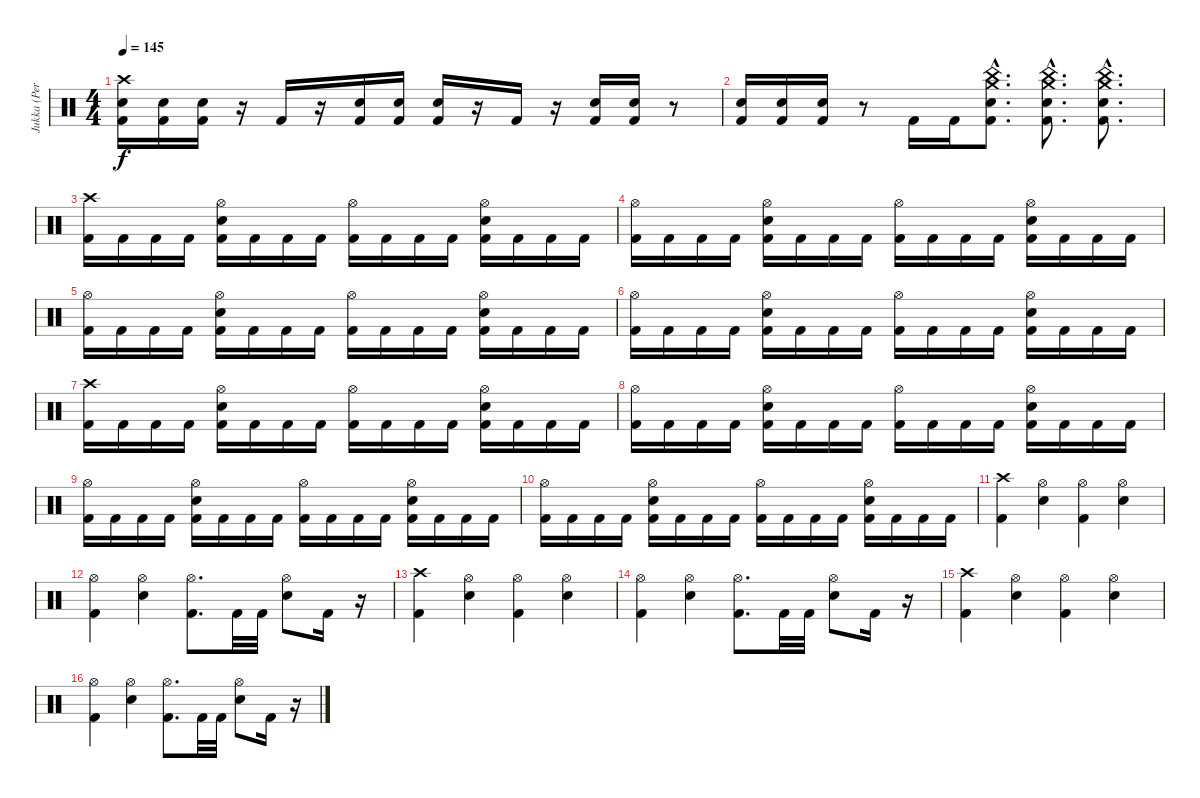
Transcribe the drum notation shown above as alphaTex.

\track ("Jukka (Percussion)" "Jukka (Per") {instrument percussion}
\staff {score}
\articulation defaults
\ts (4 4)
\tempo 145
\clef neutral
\ks c
("Kick (hit) 2" "Electric Snare (hit)" "Crash high (hit)").16{dy f} ("Kick (hit) 2" "Electric Snare (hit)").16 ("Kick (hit) 2" "Electric Snare (hit)").16 r.16 "Kick (hit) 2".16 r.16 ("Kick (hit) 2" "Electric Snare (hit)").16 ("Kick (hit) 2" "Electric Snare (hit)").16 ("Kick (hit) 2" "Electric Snare (hit)").16 r.16 "Kick (hit) 2".16 r.16 ("Kick (hit) 2" "Electric Snare (hit)").16 ("Kick (hit) 2" "Electric Snare (hit)").16 r.8 |
("Kick (hit) 2" "Electric Snare (hit)").16 ("Kick (hit) 2" "Electric Snare (hit)").16 ("Kick (hit) 2" "Electric Snare (hit)").16 r.8 "Kick (hit) 2".16 "Kick (hit) 2".16 ("Kick (hit) 2" "Electric Snare (hit)" "China (hit)"{hac} "Crash medium (hit)"{hac}).8{d} ("Kick (hit) 2" "Electric Snare (hit)" "China (hit)"{hac} "Crash medium (hit)"{hac}).8{d} ("Kick (hit) 2" "Electric Snare (hit)" "China (hit)"{hac} "Crash medium (hit)"{hac}).8{d} |
("Kick (hit) 2" "Crash high (hit)").16 "Kick (hit) 2".16 "Kick (hit) 2".16 "Kick (hit) 2".16 ("Kick (hit) 2" "Electric Snare (hit)" "Hi-Hat (open)").16 "Kick (hit) 2".16 "Kick (hit) 2".16 "Kick (hit) 2".16 ("Kick (hit) 2" "Hi-Hat (open)").16 "Kick (hit) 2".16 "Kick (hit) 2".16 "Kick (hit) 2".16 ("Kick (hit) 2" "Electric Snare (hit)" "Hi-Hat (open)").16 "Kick (hit) 2".16 "Kick (hit) 2".16 "Kick (hit) 2".16 |
("Kick (hit) 2" "Hi-Hat (open)").16 "Kick (hit) 2".16 "Kick (hit) 2".16 "Kick (hit) 2".16 ("Kick (hit) 2" "Electric Snare (hit)" "Hi-Hat (open)").16 "Kick (hit) 2".16 "Kick (hit) 2".16 "Kick (hit) 2".16 ("Kick (hit) 2" "Hi-Hat (open)").16 "Kick (hit) 2".16 "Kick (hit) 2".16 "Kick (hit) 2".16 ("Kick (hit) 2" "Electric Snare (hit)" "Hi-Hat (open)").16 "Kick (hit) 2".16 "Kick (hit) 2".16 "Kick (hit) 2".16 |
("Kick (hit) 2" "Hi-Hat (open)").16 "Kick (hit) 2".16 "Kick (hit) 2".16 "Kick (hit) 2".16 ("Kick (hit) 2" "Electric Snare (hit)" "Hi-Hat (open)").16 "Kick (hit) 2".16 "Kick (hit) 2".16 "Kick (hit) 2".16 ("Kick (hit) 2" "Hi-Hat (open)").16 "Kick (hit) 2".16 "Kick (hit) 2".16 "Kick (hit) 2".16 ("Kick (hit) 2" "Electric Snare (hit)" "Hi-Hat (open)").16 "Kick (hit) 2".16 "Kick (hit) 2".16 "Kick (hit) 2".16 |
("Kick (hit) 2" "Hi-Hat (open)").16 "Kick (hit) 2".16 "Kick (hit) 2".16 "Kick (hit) 2".16 ("Kick (hit) 2" "Electric Snare (hit)" "Hi-Hat (open)").16 "Kick (hit) 2".16 "Kick (hit) 2".16 "Kick (hit) 2".16 ("Kick (hit) 2" "Hi-Hat (open)").16 "Kick (hit) 2".16 "Kick (hit) 2".16 "Kick (hit) 2".16 ("Kick (hit) 2" "Electric Snare (hit)" "Hi-Hat (open)").16 "Kick (hit) 2".16 "Kick (hit) 2".16 "Kick (hit) 2".16 |
("Kick (hit) 2" "Crash high (hit)").16 "Kick (hit) 2".16 "Kick (hit) 2".16 "Kick (hit) 2".16 ("Kick (hit) 2" "Electric Snare (hit)" "Hi-Hat (open)").16 "Kick (hit) 2".16 "Kick (hit) 2".16 "Kick (hit) 2".16 ("Kick (hit) 2" "Hi-Hat (open)").16 "Kick (hit) 2".16 "Kick (hit) 2".16 "Kick (hit) 2".16 ("Kick (hit) 2" "Electric Snare (hit)" "Hi-Hat (open)").16 "Kick (hit) 2".16 "Kick (hit) 2".16 "Kick (hit) 2".16 |
("Kick (hit) 2" "Hi-Hat (open)").16 "Kick (hit) 2".16 "Kick (hit) 2".16 "Kick (hit) 2".16 ("Kick (hit) 2" "Electric Snare (hit)" "Hi-Hat (open)").16 "Kick (hit) 2".16 "Kick (hit) 2".16 "Kick (hit) 2".16 ("Kick (hit) 2" "Hi-Hat (open)").16 "Kick (hit) 2".16 "Kick (hit) 2".16 "Kick (hit) 2".16 ("Kick (hit) 2" "Electric Snare (hit)" "Hi-Hat (open)").16 "Kick (hit) 2".16 "Kick (hit) 2".16 "Kick (hit) 2".16 |
("Kick (hit) 2" "Hi-Hat (open)").16 "Kick (hit) 2".16 "Kick (hit) 2".16 "Kick (hit) 2".16 ("Kick (hit) 2" "Electric Snare (hit)" "Hi-Hat (open)").16 "Kick (hit) 2".16 "Kick (hit) 2".16 "Kick (hit) 2".16 ("Kick (hit) 2" "Hi-Hat (open)").16 "Kick (hit) 2".16 "Kick (hit) 2".16 "Kick (hit) 2".16 ("Kick (hit) 2" "Electric Snare (hit)" "Hi-Hat (open)").16 "Kick (hit) 2".16 "Kick (hit) 2".16 "Kick (hit) 2".16 |
("Kick (hit) 2" "Hi-Hat (open)").16 "Kick (hit) 2".16 "Kick (hit) 2".16 "Kick (hit) 2".16 ("Kick (hit) 2" "Electric Snare (hit)" "Hi-Hat (open)").16 "Kick (hit) 2".16 "Kick (hit) 2".16 "Kick (hit) 2".16 ("Kick (hit) 2" "Hi-Hat (open)").16 "Kick (hit) 2".16 "Kick (hit) 2".16 "Kick (hit) 2".16 ("Kick (hit) 2" "Electric Snare (hit)" "Hi-Hat (open)").16 "Kick (hit) 2".16 "Kick (hit) 2".16 "Kick (hit) 2".16 |
("Kick (hit) 2" "Crash high (hit)").4 ("Electric Snare (hit)" "Hi-Hat (open)").4 ("Kick (hit) 2" "Hi-Hat (open)").4 ("Electric Snare (hit)" "Hi-Hat (open)").4 |
("Kick (hit) 2" "Hi-Hat (open)").4 ("Electric Snare (hit)" "Hi-Hat (open)").4 ("Kick (hit) 2" "Hi-Hat (open)").8{d} "Kick (hit) 2".32 "Kick (hit) 2".32 ("Electric Snare (hit)" "Hi-Hat (open)").8 "Kick (hit) 2".16 r.16 |
("Kick (hit) 2" "Crash high (hit)").4 ("Electric Snare (hit)" "Hi-Hat (open)").4 ("Kick (hit) 2" "Hi-Hat (open)").4 ("Electric Snare (hit)" "Hi-Hat (open)").4 |
("Kick (hit) 2" "Hi-Hat (open)").4 ("Electric Snare (hit)" "Hi-Hat (open)").4 ("Kick (hit) 2" "Hi-Hat (open)").8{d} "Kick (hit) 2".32 "Kick (hit) 2".32 ("Electric Snare (hit)" "Hi-Hat (open)").8 "Kick (hit) 2".16 r.16 |
("Kick (hit) 2" "Crash high (hit)").4 ("Electric Snare (hit)" "Hi-Hat (open)").4 ("Kick (hit) 2" "Hi-Hat (open)").4 ("Electric Snare (hit)" "Hi-Hat (open)").4 |
("Kick (hit) 2" "Hi-Hat (open)").4 ("Electric Snare (hit)" "Hi-Hat (open)").4 ("Kick (hit) 2" "Hi-Hat (open)").8{d} "Kick (hit) 2".32 "Kick (hit) 2".32 ("Electric Snare (hit)" "Hi-Hat (open)").8 "Kick (hit) 2".16 r.16
